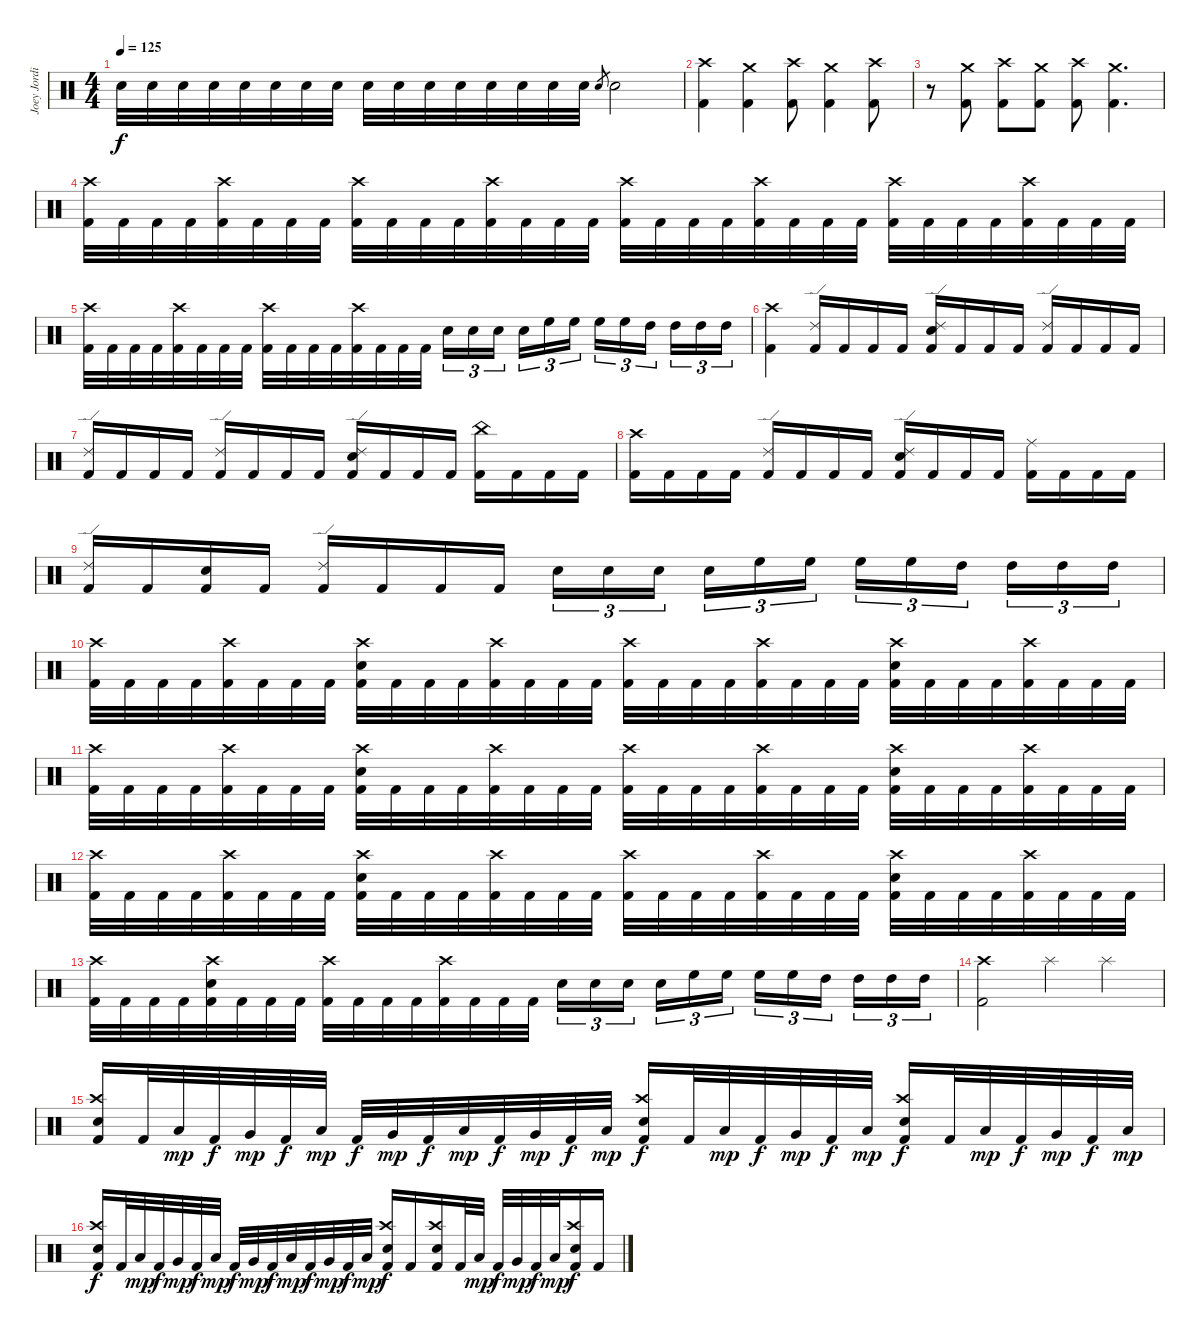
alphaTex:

\track ("Joey Jordison" "Joey Jordi") {instrument percussion}
\staff {score}
\articulation defaults
\ts (4 4)
\tempo 125
\clef neutral
\ks c "Snare (hit) 2".32{dy f volume 1} "Snare (hit) 2".32{volume 2} "Snare (hit) 2".32{volume 3} "Snare (hit) 2".32{volume 4} "Snare (hit) 2".32{volume 4} "Snare (hit) 2".32{volume 5} "Snare (hit) 2".32{volume 5} "Snare (hit) 2".32{volume 6} "Snare (hit) 2".32{volume 6} "Snare (hit) 2".32{volume 7} "Snare (hit) 2".32{volume 7} "Snare (hit) 2".32{volume 8} "Snare (hit) 2".32{volume 8} "Snare (hit) 2".32{volume 9} "Snare (hit) 2".32{volume 10} "Snare (hit) 2".32{volume 11} "Electric Snare (hit)".8{gr} "Electric Snare (hit)".2{volume 13}
|
("Crash high (hit)" "Kick (hit) 2").4 ("Crash medium (hit)" "Kick (hit) 2").4 ("Crash high (hit)" "Kick (hit) 2").8 ("Crash medium (hit)" "Kick (hit) 2").4 ("Crash high (hit)" "Kick (hit) 2").8 |
r.8 ("Crash medium (hit)" "Kick (hit) 2").8 ("Crash high (hit)" "Kick (hit) 2").8 ("Crash medium (hit)" "Kick (hit) 2").8 ("Crash high (hit)" "Kick (hit) 2").8 ("Crash medium (hit)" "Kick (hit) 2").4{d} |
("Crash high (hit)" "Kick (hit) 2").32 "Kick (hit) 2".32 "Kick (hit) 2".32 "Kick (hit) 2".32 ("Crash high (hit)" "Kick (hit) 2").32 "Kick (hit) 2".32 "Kick (hit) 2".32 "Kick (hit) 2".32 ("Crash high (hit)" "Kick (hit) 2").32 "Kick (hit) 2".32 "Kick (hit) 2".32 "Kick (hit) 2".32 ("Crash high (hit)" "Kick (hit) 2").32 "Kick (hit) 2".32 "Kick (hit) 2".32 "Kick (hit) 2".32 ("Crash high (hit)" "Kick (hit) 2").32 "Kick (hit) 2".32 "Kick (hit) 2".32 "Kick (hit) 2".32 ("Crash high (hit)" "Kick (hit) 2").32 "Kick (hit) 2".32 "Kick (hit) 2".32 "Kick (hit) 2".32 ("Crash high (hit)" "Kick (hit) 2").32 "Kick (hit) 2".32 "Kick (hit) 2".32 "Kick (hit) 2".32 ("Crash high (hit)" "Kick (hit) 2").32 "Kick (hit) 2".32 "Kick (hit) 2".32 "Kick (hit) 2".32 |
("Crash high (hit)" "Kick (hit) 2").32 "Kick (hit) 2".32 "Kick (hit) 2".32 "Kick (hit) 2".32 ("Crash high (hit)" "Kick (hit) 2").32 "Kick (hit) 2".32 "Kick (hit) 2".32 "Kick (hit) 2".32 ("Crash high (hit)" "Kick (hit) 2").32 "Kick (hit) 2".32 "Kick (hit) 2".32 "Kick (hit) 2".32 ("Crash high (hit)" "Kick (hit) 2").32 "Kick (hit) 2".32 "Kick (hit) 2".32 "Kick (hit) 2".32 "Electric Snare (hit)".16{tu (3 2)} "Electric Snare (hit)".16{tu (3 2)} "Electric Snare (hit)".16{tu (3 2) beam splitsecondary} "Electric Snare (hit)".16{tu (3 2)} "High Floor Tom (hit)".16{tu (3 2)} "High Floor Tom (hit)".16{tu (3 2)} "High Floor Tom (hit)".16{tu (3 2)} "High Floor Tom (hit)".16{tu (3 2)} "High Tom (hit)".16{tu (3 2) beam splitsecondary} "High Tom (hit)".16{tu (3 2)} "High Tom (hit)".16{tu (3 2)} "High Tom (hit)".16{tu (3 2)} |
("Crash high (hit)" "Kick (hit) 2").4 ("Ride (edge) 2" "Kick (hit) 2").16 "Kick (hit) 2".16 "Kick (hit) 2".16 "Kick (hit) 2".16 ("Ride (edge) 2" "Electric Snare (hit)" "Kick (hit) 2").16 "Kick (hit) 2".16 "Kick (hit) 2".16 "Kick (hit) 2".16 ("Ride (edge) 2" "Kick (hit) 2").16 "Kick (hit) 2".16 "Kick (hit) 2".16 "Kick (hit) 2".16 |
("Ride (edge) 2" "Kick (hit) 2").16 "Kick (hit) 2".16 "Kick (hit) 2".16 "Kick (hit) 2".16 ("Ride (edge) 2" "Kick (hit) 2").16 "Kick (hit) 2".16 "Kick (hit) 2".16 "Kick (hit) 2".16 ("Ride (edge) 2" "Electric Snare (hit)" "Kick (hit) 2").16 "Kick (hit) 2".16 "Kick (hit) 2".16 "Kick (hit) 2".16 ("China (hit)" "Kick (hit) 2").16 "Kick (hit) 2".16 "Kick (hit) 2".16 "Kick (hit) 2".16 |
("Crash high (hit)" "Kick (hit) 2").16 "Kick (hit) 2".16 "Kick (hit) 2".16 "Kick (hit) 2".16 ("Ride (edge) 2" "Kick (hit) 2").16 "Kick (hit) 2".16 "Kick (hit) 2".16 "Kick (hit) 2".16 ("Ride (edge) 2" "Electric Snare (hit)" "Kick (hit) 2").16 "Kick (hit) 2".16 "Kick (hit) 2".16 "Kick (hit) 2".16 ("Ride (middle)" "Kick (hit) 2").16 "Kick (hit) 2".16 "Kick (hit) 2".16 "Kick (hit) 2".16 |
("Ride (edge) 2" "Kick (hit) 2").16 "Kick (hit) 2".16 ("Electric Snare (hit)" "Kick (hit) 2").16 "Kick (hit) 2".16 ("Ride (edge) 2" "Kick (hit) 2").16 "Kick (hit) 2".16 "Kick (hit) 2".16 "Kick (hit) 2".16 "Electric Snare (hit)".16{tu (3 2)} "Electric Snare (hit)".16{tu (3 2)} "Electric Snare (hit)".16{tu (3 2) beam splitsecondary} "Electric Snare (hit)".16{tu (3 2)} "High Floor Tom (hit)".16{tu (3 2)} "High Floor Tom (hit)".16{tu (3 2)} "High Floor Tom (hit)".16{tu (3 2)} "High Floor Tom (hit)".16{tu (3 2)} "High Tom (hit)".16{tu (3 2) beam splitsecondary} "High Tom (hit)".16{tu (3 2)} "High Tom (hit)".16{tu (3 2)} "High Tom (hit)".16{tu (3 2)} |
("Crash high (hit)" "Kick (hit) 2").32 "Kick (hit) 2".32 "Kick (hit) 2".32 "Kick (hit) 2".32 ("Crash high (hit)" "Kick (hit) 2").32 "Kick (hit) 2".32 "Kick (hit) 2".32 "Kick (hit) 2".32 ("Crash high (hit)" "Electric Snare (hit)" "Kick (hit) 2").32 "Kick (hit) 2".32 "Kick (hit) 2".32 "Kick (hit) 2".32 ("Crash high (hit)" "Kick (hit) 2").32 "Kick (hit) 2".32 "Kick (hit) 2".32 "Kick (hit) 2".32 ("Crash high (hit)" "Kick (hit) 2").32 "Kick (hit) 2".32 "Kick (hit) 2".32 "Kick (hit) 2".32 ("Crash high (hit)" "Kick (hit) 2").32 "Kick (hit) 2".32 "Kick (hit) 2".32 "Kick (hit) 2".32 ("Crash high (hit)" "Electric Snare (hit)" "Kick (hit) 2").32 "Kick (hit) 2".32 "Kick (hit) 2".32 "Kick (hit) 2".32 ("Crash high (hit)" "Kick (hit) 2").32 "Kick (hit) 2".32 "Kick (hit) 2".32 "Kick (hit) 2".32 |
("Crash high (hit)" "Kick (hit) 2").32 "Kick (hit) 2".32 "Kick (hit) 2".32 "Kick (hit) 2".32 ("Crash high (hit)" "Kick (hit) 2").32 "Kick (hit) 2".32 "Kick (hit) 2".32 "Kick (hit) 2".32 ("Crash high (hit)" "Electric Snare (hit)" "Kick (hit) 2").32 "Kick (hit) 2".32 "Kick (hit) 2".32 "Kick (hit) 2".32 ("Crash high (hit)" "Kick (hit) 2").32 "Kick (hit) 2".32 "Kick (hit) 2".32 "Kick (hit) 2".32 ("Crash high (hit)" "Kick (hit) 2").32 "Kick (hit) 2".32 "Kick (hit) 2".32 "Kick (hit) 2".32 ("Crash high (hit)" "Kick (hit) 2").32 "Kick (hit) 2".32 "Kick (hit) 2".32 "Kick (hit) 2".32 ("Crash high (hit)" "Electric Snare (hit)" "Kick (hit) 2").32 "Kick (hit) 2".32 "Kick (hit) 2".32 "Kick (hit) 2".32 ("Crash high (hit)" "Kick (hit) 2").32 "Kick (hit) 2".32 "Kick (hit) 2".32 "Kick (hit) 2".32 |
("Crash high (hit)" "Kick (hit) 2").32 "Kick (hit) 2".32 "Kick (hit) 2".32 "Kick (hit) 2".32 ("Crash high (hit)" "Kick (hit) 2").32 "Kick (hit) 2".32 "Kick (hit) 2".32 "Kick (hit) 2".32 ("Crash high (hit)" "Electric Snare (hit)" "Kick (hit) 2").32 "Kick (hit) 2".32 "Kick (hit) 2".32 "Kick (hit) 2".32 ("Crash high (hit)" "Kick (hit) 2").32 "Kick (hit) 2".32 "Kick (hit) 2".32 "Kick (hit) 2".32 ("Crash high (hit)" "Kick (hit) 2").32 "Kick (hit) 2".32 "Kick (hit) 2".32 "Kick (hit) 2".32 ("Crash high (hit)" "Kick (hit) 2").32 "Kick (hit) 2".32 "Kick (hit) 2".32 "Kick (hit) 2".32 ("Crash high (hit)" "Electric Snare (hit)" "Kick (hit) 2").32 "Kick (hit) 2".32 "Kick (hit) 2".32 "Kick (hit) 2".32 ("Crash high (hit)" "Kick (hit) 2").32 "Kick (hit) 2".32 "Kick (hit) 2".32 "Kick (hit) 2".32 |
("Crash high (hit)" "Kick (hit) 2").32 "Kick (hit) 2".32 "Kick (hit) 2".32 "Kick (hit) 2".32 ("Crash high (hit)" "Electric Snare (hit)" "Kick (hit) 2").32 "Kick (hit) 2".32 "Kick (hit) 2".32 "Kick (hit) 2".32 ("Crash high (hit)" "Kick (hit) 2").32 "Kick (hit) 2".32 "Kick (hit) 2".32 "Kick (hit) 2".32 ("Crash high (hit)" "Kick (hit) 2").32 "Kick (hit) 2".32 "Kick (hit) 2".32 "Kick (hit) 2".32 "Electric Snare (hit)".16{tu (3 2)} "Electric Snare (hit)".16{tu (3 2)} "Electric Snare (hit)".16{tu (3 2) beam splitsecondary} "Electric Snare (hit)".16{tu (3 2)} "High Floor Tom (hit)".16{tu (3 2)} "High Floor Tom (hit)".16{tu (3 2)} "High Floor Tom (hit)".16{tu (3 2)} "High Floor Tom (hit)".16{tu (3 2)} "High Tom (hit)".16{tu (3 2) beam splitsecondary} "High Tom (hit)".16{tu (3 2)} "High Tom (hit)".16{tu (3 2)} "High Tom (hit)".16{tu (3 2)} |
("Crash high (hit)" "Kick (hit) 2").2 "Splash (hit)".4 "Splash (hit)".4 |
("Crash high (hit)" "Electric Snare (hit)" "Kick (hit) 2").16 "Kick (hit) 2".32 "Low Tom (hit)".32{dy mp} "Kick (hit) 2".32{dy f} "Very Low Tom (hit)".32{dy mp} "Kick (hit) 2".32{dy f} "Low Tom (hit)".32{dy mp} "Kick (hit) 2".32{dy f} "Very Low Tom (hit)".32{dy mp} "Kick (hit) 2".32{dy f} "Low Tom (hit)".32{dy mp} "Kick (hit) 2".32{dy f} "Very Low Tom (hit)".32{dy mp} "Kick (hit) 2".32{dy f} "Low Tom (hit)".32{dy mp} ("Crash high (hit)" "Electric Snare (hit)" "Kick (hit) 2").16{dy f} "Kick (hit) 2".32 "Low Tom (hit)".32{dy mp} "Kick (hit) 2".32{dy f} "Very Low Tom (hit)".32{dy mp} "Kick (hit) 2".32{dy f} "Low Tom (hit)".32{dy mp} ("Crash high (hit)" "Electric Snare (hit)" "Kick (hit) 2").16{dy f} "Kick (hit) 2".32 "Low Tom (hit)".32{dy mp} "Kick (hit) 2".32{dy f} "Very Low Tom (hit)".32{dy mp} "Kick (hit) 2".32{dy f} "Low Tom (hit)".32{dy mp} |
("Crash high (hit)" "Electric Snare (hit)" "Kick (hit) 2").16{dy f} "Kick (hit) 2".32 "Low Tom (hit)".32{dy mp} "Kick (hit) 2".32{dy f} "Very Low Tom (hit)".32{dy mp} "Kick (hit) 2".32{dy f} "Low Tom (hit)".32{dy mp} "Kick (hit) 2".32{dy f} "Very Low Tom (hit)".32{dy mp} "Kick (hit) 2".32{dy f} "Low Tom (hit)".32{dy mp} "Kick (hit) 2".32{dy f} "Very Low Tom (hit)".32{dy mp} "Kick (hit) 2".32{dy f} "Low Tom (hit)".32{dy mp} ("Crash high (hit)" "Electric Snare (hit)" "Kick (hit) 2").16{dy f} "Kick (hit) 2".16 ("Crash high (hit)" "Electric Snare (hit)" "Kick (hit) 2").16 "Kick (hit) 2".32 "Low Tom (hit)".32{dy mp} "Kick (hit) 2".32{dy f} "Very Low Tom (hit)".32{dy mp} "Kick (hit) 2".32{dy f} "Low Tom (hit)".32{dy mp} ("Crash high (hit)" "Electric Snare (hit)" "Kick (hit) 2").16{dy f} "Kick (hit) 2".16
